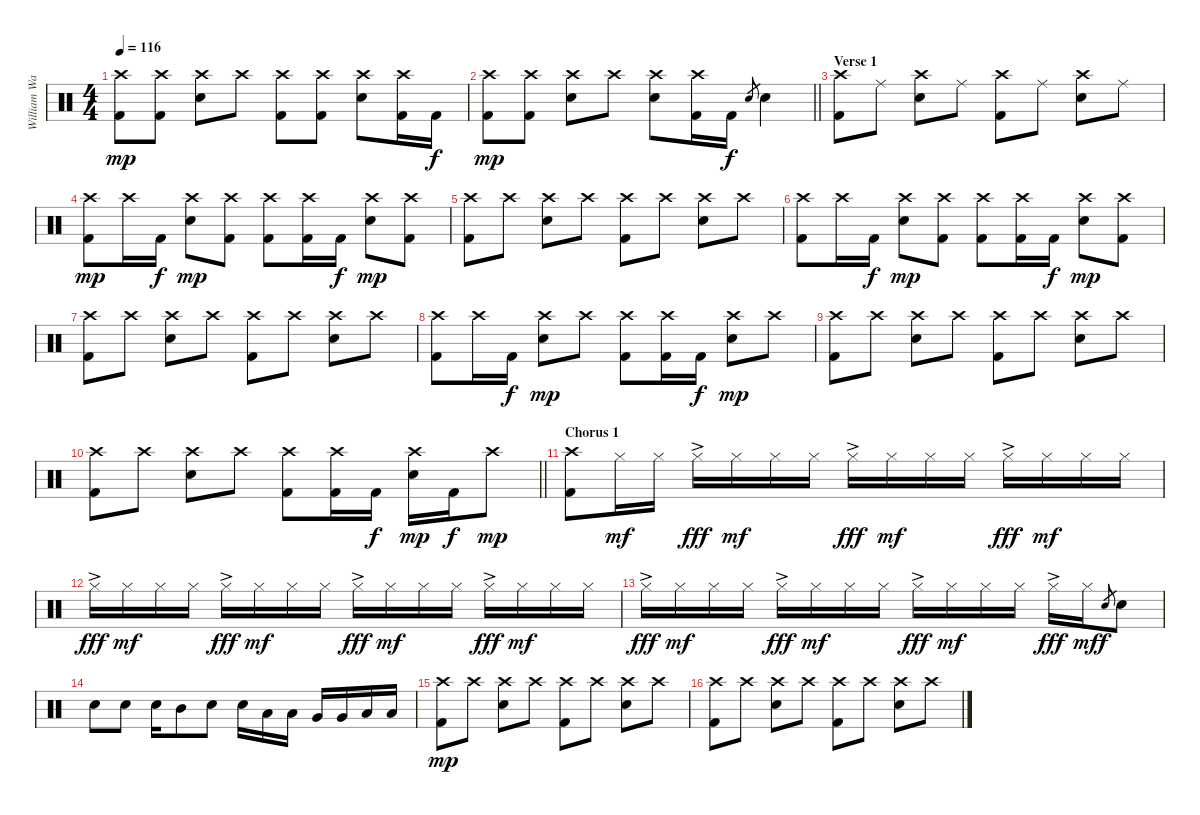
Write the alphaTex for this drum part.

\track ("William Ward" "William Wa") {instrument percussion}
\staff {score}
\articulation defaults
\ts (4 4)
\tempo 116
\clef neutral
\ks c
("Crash high (hit)" "Kick (hit) 2").8{dy mp} ("Crash high (hit)" "Kick (hit) 2").8 ("Crash high (hit)" "Snare (hit) 2").8 "Crash high (hit)".8 ("Crash high (hit)" "Kick (hit) 2").8 ("Crash high (hit)" "Kick (hit) 2").8 ("Crash high (hit)" "Snare (hit) 2").8 ("Crash high (hit)" "Kick (hit) 2").16 "Kick (hit) 2".16{dy f} |
\barLineRight lightlight
("Crash high (hit)" "Kick (hit) 2").8{dy mp} ("Crash high (hit)" "Kick (hit) 2").8 ("Crash high (hit)" "Snare (hit) 2").8 "Crash high (hit)".8 ("Crash high (hit)" "Snare (hit) 2").8 ("Crash high (hit)" "Kick (hit) 2").16 "Kick (hit) 2".16{dy f} "Snare (hit) 2".8{gr} "Snare (hit) 2".4 |
\section ("" "Verse 1")
("Crash high (hit)" "Kick (hit) 2").8 "Ride (middle)".8 ("Crash high (hit)" "Snare (hit) 2").8 "Ride (middle)".8 ("Crash high (hit)" "Kick (hit) 2").8 "Ride (middle)".8 ("Crash high (hit)" "Snare (hit) 2").8 "Ride (middle)".8 |
("Crash high (hit)" "Kick (hit) 2").8{dy mp} "Crash high (hit)".16 "Kick (hit) 2".16{dy f} ("Crash high (hit)" "Snare (hit) 2").8{dy mp} ("Crash high (hit)" "Kick (hit) 2").8 ("Crash high (hit)" "Kick (hit) 2").8 ("Crash high (hit)" "Kick (hit) 2").16 "Kick (hit) 2".16{dy f} ("Crash high (hit)" "Snare (hit) 2").8{dy mp} ("Crash high (hit)" "Kick (hit) 2").8 |
("Crash high (hit)" "Kick (hit) 2").8 "Crash high (hit)".8 ("Crash high (hit)" "Snare (hit) 2").8 "Crash high (hit)".8 ("Crash high (hit)" "Kick (hit) 2").8 "Crash high (hit)".8 ("Crash high (hit)" "Snare (hit) 2").8 "Crash high (hit)".8 |
("Crash high (hit)" "Kick (hit) 2").8 "Crash high (hit)".16 "Kick (hit) 2".16{dy f} ("Crash high (hit)" "Snare (hit) 2").8{dy mp} ("Crash high (hit)" "Kick (hit) 2").8 ("Crash high (hit)" "Kick (hit) 2").8 ("Crash high (hit)" "Kick (hit) 2").16 "Kick (hit) 2".16{dy f} ("Crash high (hit)" "Snare (hit) 2").8{dy mp} ("Crash high (hit)" "Kick (hit) 2").8 |
("Crash high (hit)" "Kick (hit) 2").8 "Crash high (hit)".8 ("Crash high (hit)" "Snare (hit) 2").8 "Crash high (hit)".8 ("Crash high (hit)" "Kick (hit) 2").8 "Crash high (hit)".8 ("Crash high (hit)" "Snare (hit) 2").8 "Crash high (hit)".8 |
("Crash high (hit)" "Kick (hit) 2").8 "Crash high (hit)".16 "Kick (hit) 2".16{dy f} ("Crash high (hit)" "Snare (hit) 2").8{dy mp} "Crash high (hit)".8 ("Crash high (hit)" "Kick (hit) 2").8 ("Crash high (hit)" "Kick (hit) 2").16 "Kick (hit) 2".16{dy f} ("Crash high (hit)" "Snare (hit) 2").8{dy mp} "Crash high (hit)".8 |
("Crash high (hit)" "Kick (hit) 2").8 "Crash high (hit)".8 ("Crash high (hit)" "Snare (hit) 2").8 "Crash high (hit)".8 ("Crash high (hit)" "Kick (hit) 2").8 "Crash high (hit)".8 ("Crash high (hit)" "Snare (hit) 2").8 "Crash high (hit)".8 |
\barLineRight lightlight
("Crash high (hit)" "Kick (hit) 2").8 "Crash high (hit)".8 ("Crash high (hit)" "Snare (hit) 2").8 "Crash high (hit)".8 ("Crash high (hit)" "Kick (hit) 2").8 ("Crash high (hit)" "Kick (hit) 2").16 "Kick (hit) 2".16{dy f} ("Crash high (hit)" "Snare (hit) 2").16{dy mp} "Kick (hit) 2".16{dy f} "Crash high (hit)".8{dy mp} |
\section ("" "Chorus 1")
("Crash high (hit)" "Kick (hit) 2").8 "Hi-Hat (closed)".16{dy mf} "Hi-Hat (closed)".16 "Hi-Hat (closed)"{ac}.16{dy fff} "Hi-Hat (closed)".16{dy mf} "Hi-Hat (closed)".16 "Hi-Hat (closed)".16 "Hi-Hat (closed)"{ac}.16{dy fff} "Hi-Hat (closed)".16{dy mf} "Hi-Hat (closed)".16 "Hi-Hat (closed)".16 "Hi-Hat (closed)"{ac}.16{dy fff} "Hi-Hat (closed)".16{dy mf} "Hi-Hat (closed)".16 "Hi-Hat (closed)".16 |
"Hi-Hat (closed)"{ac}.16{dy fff} "Hi-Hat (closed)".16{dy mf} "Hi-Hat (closed)".16 "Hi-Hat (closed)".16 "Hi-Hat (closed)"{ac}.16{dy fff} "Hi-Hat (closed)".16{dy mf} "Hi-Hat (closed)".16 "Hi-Hat (closed)".16 "Hi-Hat (closed)"{ac}.16{dy fff} "Hi-Hat (closed)".16{dy mf} "Hi-Hat (closed)".16 "Hi-Hat (closed)".16 "Hi-Hat (closed)"{ac}.16{dy fff} "Hi-Hat (closed)".16{dy mf} "Hi-Hat (closed)".16 "Hi-Hat (closed)".16 |
"Hi-Hat (closed)"{ac}.16{dy fff} "Hi-Hat (closed)".16{dy mf} "Hi-Hat (closed)".16 "Hi-Hat (closed)".16 "Hi-Hat (closed)"{ac}.16{dy fff} "Hi-Hat (closed)".16{dy mf} "Hi-Hat (closed)".16 "Hi-Hat (closed)".16 "Hi-Hat (closed)"{ac}.16{dy fff} "Hi-Hat (closed)".16{dy mf} "Hi-Hat (closed)".16 "Hi-Hat (closed)".16 "Hi-Hat (closed)"{ac}.16{dy fff} "Hi-Hat (closed)".16{dy mf} "Snare (hit) 2".8{gr dy f} "Snare (hit) 2".8 |
"Snare (hit) 2".8 "Snare (hit) 2".8 "Snare (hit) 2".16 "Mid Tom (hit)".8 "Snare (hit) 2".8 "Snare (hit) 2".16 "Low Tom (hit)".16 "Low Tom (hit)".16 "Very Low Tom (hit)".16 "Very Low Tom (hit)".16 "Low Floor Tom (hit)".16 "Low Floor Tom (hit)".16 |
("Crash high (hit)" "Kick (hit) 2").8{dy mp} "Crash high (hit)".8 ("Crash high (hit)" "Snare (hit) 2").8 "Crash high (hit)".8 ("Crash high (hit)" "Kick (hit) 2").8 "Crash high (hit)".8 ("Crash high (hit)" "Snare (hit) 2").8 "Crash high (hit)".8 |
("Crash high (hit)" "Kick (hit) 2").8 "Crash high (hit)".8 ("Crash high (hit)" "Snare (hit) 2").8 "Crash high (hit)".8 ("Crash high (hit)" "Kick (hit) 2").8 "Crash high (hit)".8 ("Crash high (hit)" "Snare (hit) 2").8 "Crash high (hit)".8
